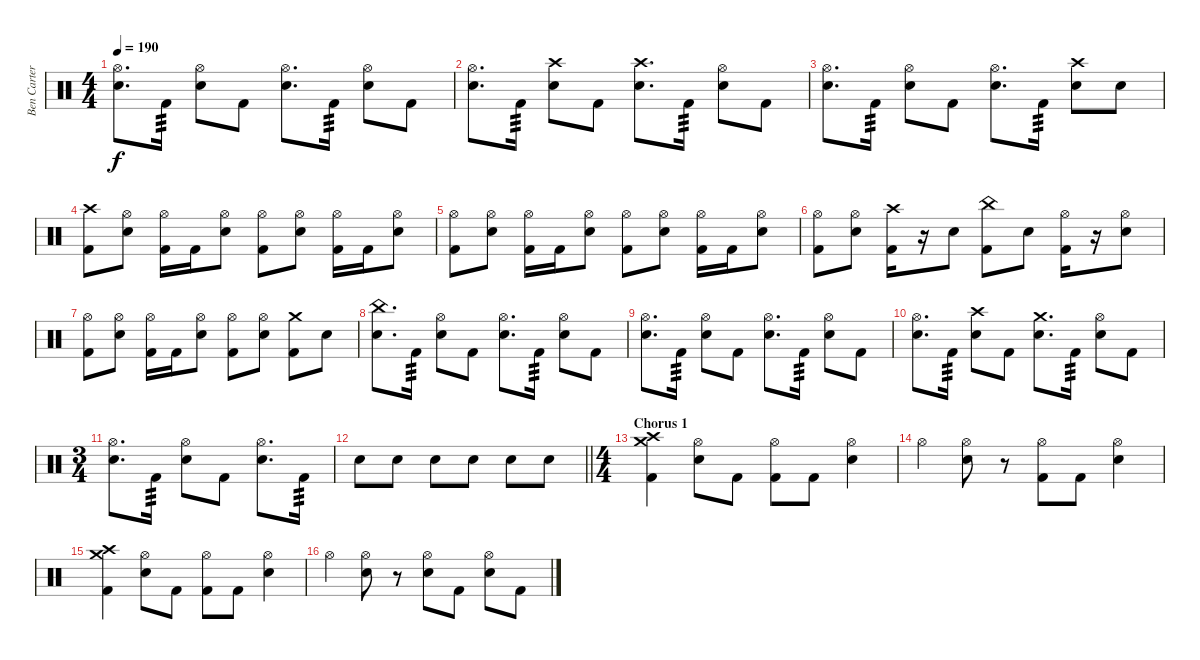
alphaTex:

\track ("Ben Carter" "Ben Carter") {instrument percussion}
\staff {score}
\articulation defaults
\ts (4 4)
\tempo 190
\clef neutral
\ks c
("Hi-Hat (open)" "Snare (hit) 2").8{d dy f} "Kick (hit) 2".16{tp 3} ("Hi-Hat (open)" "Snare (hit) 2").8 "Kick (hit) 2".8 ("Hi-Hat (open)" "Snare (hit) 2").8{d} "Kick (hit) 2".16{tp 3} ("Hi-Hat (open)" "Snare (hit) 2").8 "Kick (hit) 2".8 |
("Hi-Hat (open)" "Snare (hit) 2").8{d} "Kick (hit) 2".16{tp 3} ("Crash high (hit)" "Snare (hit) 2").8 "Kick (hit) 2".8 ("Crash high (hit)" "Snare (hit) 2").8{d} "Kick (hit) 2".16{tp 3} ("Hi-Hat (open)" "Snare (hit) 2").8 "Kick (hit) 2".8 |
("Hi-Hat (open)" "Snare (hit) 2").8{d} "Kick (hit) 2".16{tp 3} ("Hi-Hat (open)" "Snare (hit) 2").8 "Kick (hit) 2".8 ("Hi-Hat (open)" "Snare (hit) 2").8{d} "Kick (hit) 2".16{tp 3} ("Crash high (hit)" "Snare (hit) 2").8 "Snare (hit) 2".8 |
("Crash high (hit)" "Kick (hit) 2").8 ("Hi-Hat (open)" "Snare (hit) 2").8 ("Hi-Hat (open)" "Kick (hit) 2").16 "Kick (hit) 2".16 ("Hi-Hat (open)" "Snare (hit) 2").8 ("Hi-Hat (open)" "Kick (hit) 2").8 ("Hi-Hat (open)" "Snare (hit) 2").8 ("Hi-Hat (open)" "Kick (hit) 2").16 "Kick (hit) 2".16 ("Hi-Hat (open)" "Snare (hit) 2").8 |
("Hi-Hat (open)" "Kick (hit) 2").8 ("Hi-Hat (open)" "Snare (hit) 2").8 ("Hi-Hat (open)" "Kick (hit) 2").16 "Kick (hit) 2".16 ("Hi-Hat (open)" "Snare (hit) 2").8 ("Hi-Hat (open)" "Kick (hit) 2").8 ("Hi-Hat (open)" "Snare (hit) 2").8 ("Hi-Hat (open)" "Kick (hit) 2").16 "Kick (hit) 2".16 ("Hi-Hat (open)" "Snare (hit) 2").8 |
("Hi-Hat (open)" "Kick (hit) 2").8 ("Hi-Hat (open)" "Snare (hit) 2").8 ("Crash high (hit)" "Kick (hit) 2").16 r.16 "Snare (hit) 2".8 ("China (hit)" "Kick (hit) 2").8 "Snare (hit) 2".8 ("Hi-Hat (open)" "Kick (hit) 2").16 r.16 ("Hi-Hat (open)" "Snare (hit) 2").8 |
("Hi-Hat (open)" "Kick (hit) 2").8 ("Hi-Hat (open)" "Snare (hit) 2").8 ("Hi-Hat (open)" "Kick (hit) 2").16 "Kick (hit) 2".16 ("Hi-Hat (open)" "Snare (hit) 2").8 ("Hi-Hat (open)" "Kick (hit) 2").8 ("Hi-Hat (open)" "Snare (hit) 2").8 ("Crash medium (hit)" "Kick (hit) 2").8 "Snare (hit) 2".8 |
("China (hit)" "Snare (hit) 2").8{d} "Kick (hit) 2".16{tp 3} ("Hi-Hat (open)" "Snare (hit) 2").8 "Kick (hit) 2".8 ("Hi-Hat (open)" "Snare (hit) 2").8{d} "Kick (hit) 2".16{tp 3} ("Hi-Hat (open)" "Snare (hit) 2").8 "Kick (hit) 2".8 |
("Hi-Hat (open)" "Snare (hit) 2").8{d} "Kick (hit) 2".16{tp 3} ("Hi-Hat (open)" "Snare (hit) 2").8 "Kick (hit) 2".8 ("Hi-Hat (open)" "Snare (hit) 2").8{d} "Kick (hit) 2".16{tp 3} ("Hi-Hat (open)" "Snare (hit) 2").8 "Kick (hit) 2".8 |
("Hi-Hat (open)" "Snare (hit) 2").8{d} "Kick (hit) 2".16{tp 3} ("Crash high (hit)" "Snare (hit) 2").8 "Kick (hit) 2".8 ("Crash medium (hit)" "Snare (hit) 2").8{d} "Kick (hit) 2".16{tp 3} ("Hi-Hat (open)" "Snare (hit) 2").8 "Kick (hit) 2".8 |
\ts (3 4)
("Hi-Hat (open)" "Snare (hit) 2").8{d} "Kick (hit) 2".16{tp 3} ("Hi-Hat (open)" "Snare (hit) 2").8 "Kick (hit) 2".8 ("Hi-Hat (open)" "Snare (hit) 2").8{d} "Kick (hit) 2".16{tp 3} |
\barLineRight lightlight "Snare (hit) 2".8 "Snare (hit) 2".8 "Snare (hit) 2".8 "Snare (hit) 2".8 "Snare (hit) 2".8 "Snare (hit) 2".8
|
\ts (4 4)
\section ("" "Chorus 1")
("Crash medium (hit)" "Crash high (hit)" "Kick (hit) 2").4 ("Hi-Hat (open)" "Snare (hit) 2").8 "Kick (hit) 2".8 ("Hi-Hat (open)" "Kick (hit) 2").8 "Kick (hit) 2".8 ("Hi-Hat (open)" "Snare (hit) 2").4 |
"Hi-Hat (open)".4 ("Hi-Hat (open)" "Snare (hit) 2").8 r.8 ("Hi-Hat (open)" "Kick (hit) 2").8 "Kick (hit) 2".8 ("Hi-Hat (open)" "Snare (hit) 2").4 |
("Crash medium (hit)" "Crash high (hit)" "Kick (hit) 2").4 ("Hi-Hat (open)" "Snare (hit) 2").8 "Kick (hit) 2".8 ("Hi-Hat (open)" "Kick (hit) 2").8 "Kick (hit) 2".8 ("Hi-Hat (open)" "Snare (hit) 2").4 |
"Hi-Hat (open)".4 ("Hi-Hat (open)" "Snare (hit) 2").8 r.8 ("Hi-Hat (open)" "Snare (hit) 2").8 "Kick (hit) 2".8 ("Hi-Hat (open)" "Snare (hit) 2").8 "Kick (hit) 2".8
